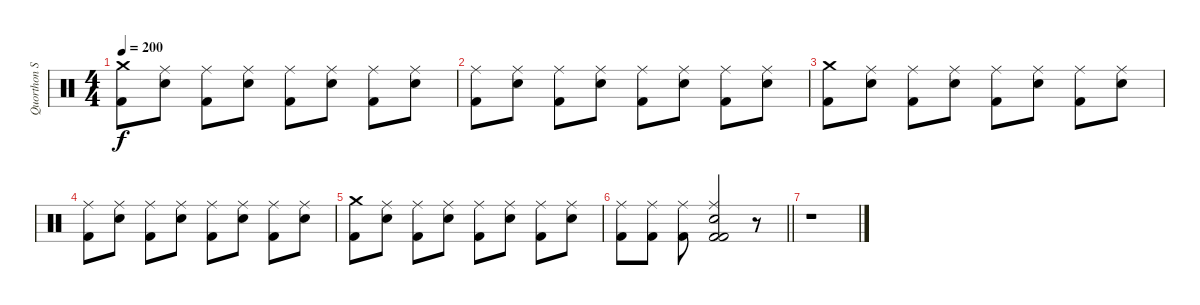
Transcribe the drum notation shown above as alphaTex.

\track ("Quorthon Seth" "Quorthon S") {instrument percussion}
\staff {score}
\articulation defaults
\ts (4 4)
\tempo 200
\clef neutral
\ks c
("Crash medium (hit)" "Kick (hit) 2").8{dy f} ("Ride (middle)" "Snare (hit) 2").8 ("Ride (middle)" "Kick (hit) 2").8 ("Ride (middle)" "Snare (hit) 2").8 ("Ride (middle)" "Kick (hit) 2").8 ("Ride (middle)" "Snare (hit) 2").8 ("Ride (middle)" "Kick (hit) 2").8 ("Ride (middle)" "Snare (hit) 2").8 |
("Ride (middle)" "Kick (hit) 2").8 ("Ride (middle)" "Snare (hit) 2").8 ("Ride (middle)" "Kick (hit) 2").8 ("Ride (middle)" "Snare (hit) 2").8 ("Ride (middle)" "Kick (hit) 2").8 ("Ride (middle)" "Snare (hit) 2").8 ("Ride (middle)" "Kick (hit) 2").8 ("Ride (middle)" "Snare (hit) 2").8 |
("Crash medium (hit)" "Kick (hit) 2").8 ("Ride (middle)" "Snare (hit) 2").8 ("Ride (middle)" "Kick (hit) 2").8 ("Ride (middle)" "Snare (hit) 2").8 ("Ride (middle)" "Kick (hit) 2").8 ("Ride (middle)" "Snare (hit) 2").8 ("Ride (middle)" "Kick (hit) 2").8 ("Ride (middle)" "Snare (hit) 2").8 |
("Ride (middle)" "Kick (hit) 2").8 ("Ride (middle)" "Snare (hit) 2").8 ("Ride (middle)" "Kick (hit) 2").8 ("Ride (middle)" "Snare (hit) 2").8 ("Ride (middle)" "Kick (hit) 2").8 ("Ride (middle)" "Snare (hit) 2").8 ("Ride (middle)" "Kick (hit) 2").8 ("Ride (middle)" "Snare (hit) 2").8 |
("Crash medium (hit)" "Kick (hit) 2").8 ("Ride (middle)" "Snare (hit) 2").8 ("Ride (middle)" "Kick (hit) 2").8 ("Ride (middle)" "Snare (hit) 2").8 ("Ride (middle)" "Kick (hit) 2").8 ("Ride (middle)" "Snare (hit) 2").8 ("Ride (middle)" "Kick (hit) 2").8 ("Ride (middle)" "Snare (hit) 2").8 |
\barLineRight lightlight
("Ride (middle)" "Kick (hit) 2").8 ("Ride (middle)" "Kick (hit) 2").8 ("Ride (middle)" "Kick (hit) 2").8 ("Ride (middle)" "Kick (hit) 2" "Kick (hit) 2" "Snare (hit) 2").2 r.8 |
r.1
